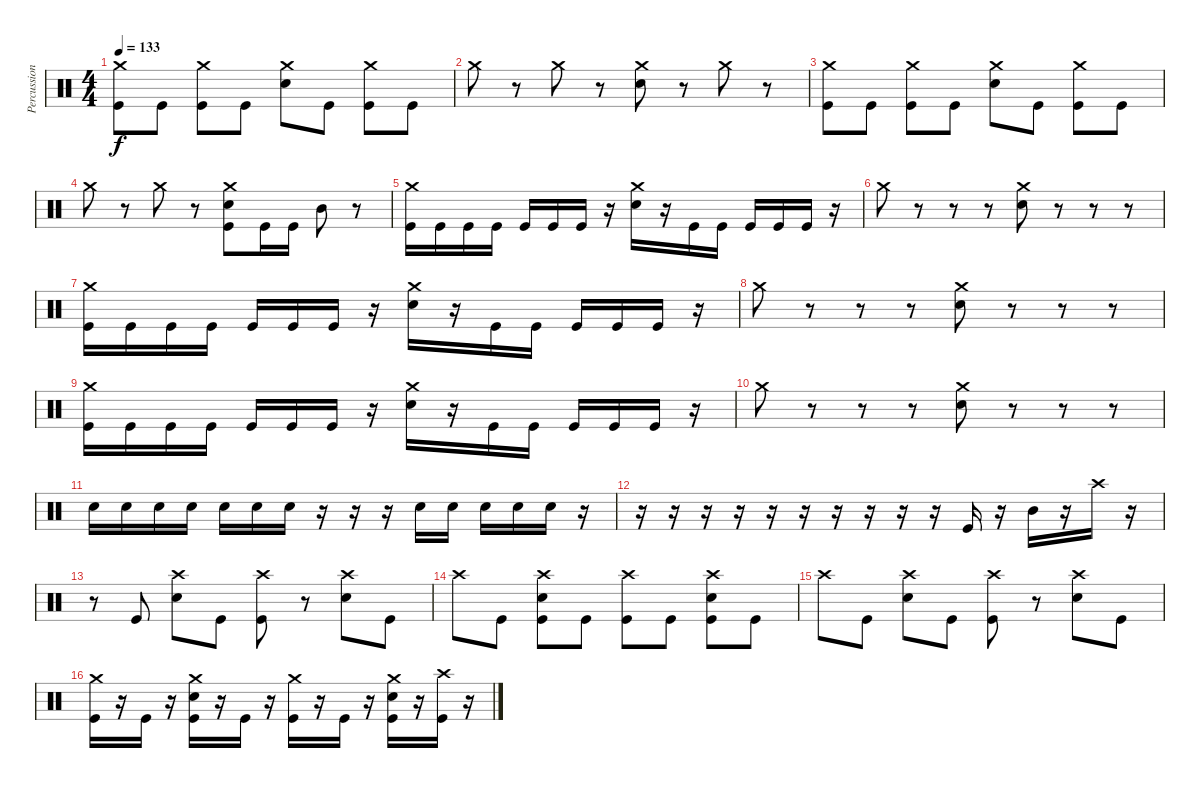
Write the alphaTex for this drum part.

\track ("Percussion" "Percussion") {instrument percussion}
\staff {score}
\articulation defaults
\ts (4 4)
\tempo 133
\clef neutral
\ks c
("Crash medium (hit)" "Kick (hit)").8{dy f} "Kick (hit)".8 ("Crash medium (hit)" "Kick (hit)").8 "Kick (hit)".8 ("Crash medium (hit)" "Electric Snare (hit)").8 "Kick (hit)".8 ("Crash medium (hit)" "Kick (hit)").8 "Kick (hit)".8 |
"Crash medium (hit)".8 r.8 "Crash medium (hit)".8 r.8 ("Crash medium (hit)" "Electric Snare (hit)").8 r.8 "Crash medium (hit)".8 r.8 |
("Crash medium (hit)" "Kick (hit)").8 "Kick (hit)".8 ("Crash medium (hit)" "Kick (hit)").8 "Kick (hit)".8 ("Crash medium (hit)" "Electric Snare (hit)").8 "Kick (hit)".8 ("Crash medium (hit)" "Kick (hit)").8 "Kick (hit)".8 |
"Crash medium (hit)".8 r.8 "Crash medium (hit)".8 r.8 ("Crash medium (hit)" "Electric Snare (hit)" "Kick (hit)").8 "Kick (hit)".16 "Kick (hit)".16 "Mid Tom (hit)".8 r.8 |
("Crash medium (hit)" "Kick (hit)").16 "Kick (hit)".16 "Kick (hit)".16 "Kick (hit)".16 "Kick (hit)".16 "Kick (hit)".16 "Kick (hit)".16 r.16 ("Crash medium (hit)" "Electric Snare (hit)").16 r.16 "Kick (hit)".16 "Kick (hit)".16 "Kick (hit)".16 "Kick (hit)".16 "Kick (hit)".16 r.16 |
"Crash medium (hit)".8 r.8 r.8 r.8 ("Crash medium (hit)" "Electric Snare (hit)").8 r.8 r.8 r.8 |
("Crash medium (hit)" "Kick (hit)").16 "Kick (hit)".16 "Kick (hit)".16 "Kick (hit)".16 "Kick (hit)".16 "Kick (hit)".16 "Kick (hit)".16 r.16 ("Crash medium (hit)" "Electric Snare (hit)").16 r.16 "Kick (hit)".16 "Kick (hit)".16 "Kick (hit)".16 "Kick (hit)".16 "Kick (hit)".16 r.16 |
"Crash medium (hit)".8 r.8 r.8 r.8 ("Crash medium (hit)" "Electric Snare (hit)").8 r.8 r.8 r.8 |
("Crash medium (hit)" "Kick (hit)").16 "Kick (hit)".16 "Kick (hit)".16 "Kick (hit)".16 "Kick (hit)".16 "Kick (hit)".16 "Kick (hit)".16 r.16 ("Crash medium (hit)" "Electric Snare (hit)").16 r.16 "Kick (hit)".16 "Kick (hit)".16 "Kick (hit)".16 "Kick (hit)".16 "Kick (hit)".16 r.16 |
"Crash medium (hit)".8 r.8 r.8 r.8 ("Crash medium (hit)" "Electric Snare (hit)").8 r.8 r.8 r.8 |
"Electric Snare (hit)".16 "Electric Snare (hit)".16 "Electric Snare (hit)".16 "Electric Snare (hit)".16 "Electric Snare (hit)".16 "Electric Snare (hit)".16 "Electric Snare (hit)".16 r.16 r.16 r.16 "Electric Snare (hit)".16 "Electric Snare (hit)".16 "Electric Snare (hit)".16 "Electric Snare (hit)".16 "Electric Snare (hit)".16 r.16 |
r.16 r.16 r.16 r.16 r.16 r.16 r.16 r.16 r.16 r.16 "Kick (hit)".16 r.16 "Mid Tom (hit)".16 r.16 "Crash high (hit)".16 r.16 |
r.8 "Kick (hit)".8 ("Crash high (hit)" "Electric Snare (hit)").8 "Kick (hit)".8 ("Crash high (hit)" "Kick (hit)").8 r.8 ("Crash high (hit)" "Electric Snare (hit)").8 "Kick (hit)".8 |
"Crash high (hit)".8 "Kick (hit)".8 ("Crash high (hit)" "Electric Snare (hit)" "Kick (hit)").8 "Kick (hit)".8 ("Crash high (hit)" "Kick (hit)").8 "Kick (hit)".8 ("Crash high (hit)" "Electric Snare (hit)" "Kick (hit)").8 "Kick (hit)".8 |
"Crash high (hit)".8 "Kick (hit)".8 ("Crash high (hit)" "Electric Snare (hit)").8 "Kick (hit)".8 ("Crash high (hit)" "Kick (hit)").8 r.8 ("Crash high (hit)" "Electric Snare (hit)").8 "Kick (hit)".8 |
("Crash medium (hit)" "Kick (hit)").16 r.16 "Kick (hit)".16 r.16 ("Crash medium (hit)" "Electric Snare (hit)" "Kick (hit)").16 r.16 "Kick (hit)".16 r.16 ("Crash medium (hit)" "Kick (hit)").16 r.16 "Kick (hit)".16 r.16 ("Crash medium (hit)" "Electric Snare (hit)" "Kick (hit)").16 r.16 ("Crash high (hit)" "Kick (hit)").16 r.16
